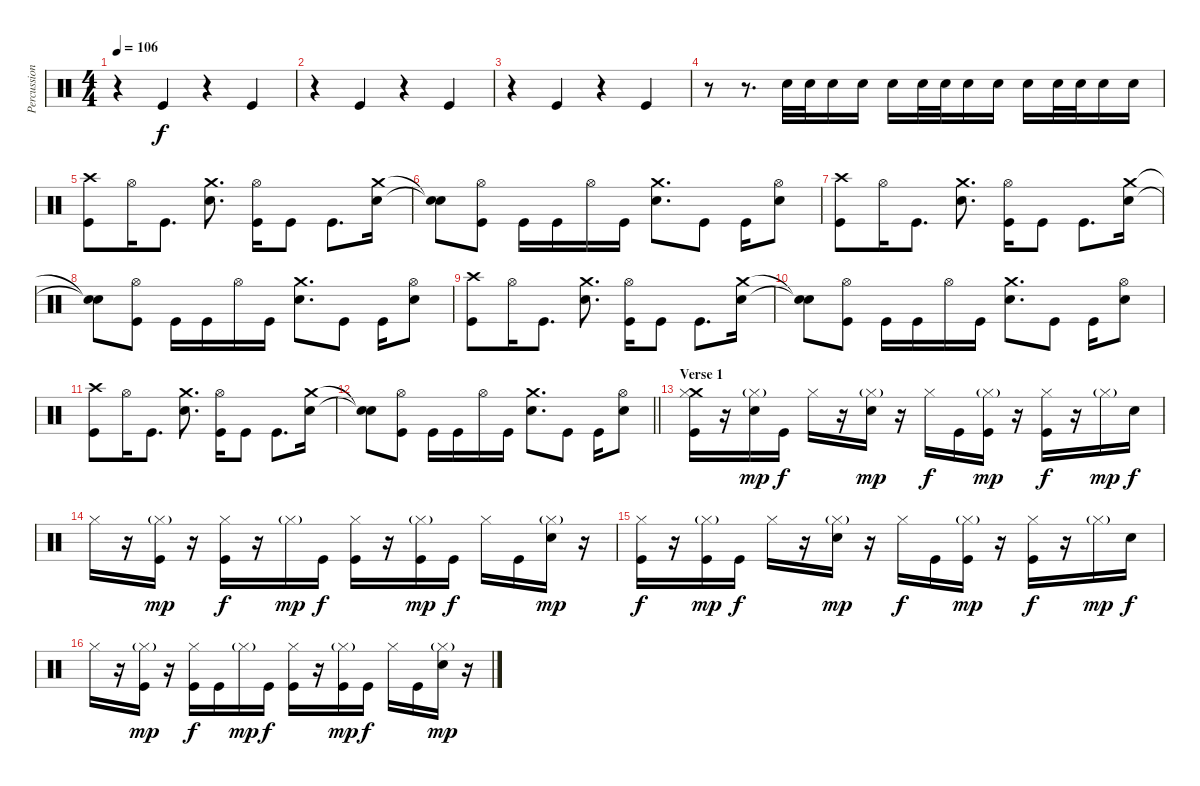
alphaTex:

\track ("Percussion" "Percussion") {instrument percussion}
\staff {score}
\articulation defaults
\ts (4 4)
\tempo 106
\clef neutral
\ks c
r.4{dy f} "Kick (hit)".4 r.4 "Kick (hit)".4 |
r.4 "Kick (hit)".4 r.4 "Kick (hit)".4 |
r.4 "Kick (hit)".4 r.4 "Kick (hit)".4 |
r.8 r.8{d} "Snare (hit) 2".32 "Snare (hit) 2".32 "Snare (hit) 2".16 "Snare (hit) 2".16 "Snare (hit) 2".16 "Snare (hit) 2".32 "Snare (hit) 2".32 "Snare (hit) 2".16 "Snare (hit) 2".16 "Snare (hit) 2".16 "Snare (hit) 2".32 "Snare (hit) 2".32 "Snare (hit) 2".16 "Snare (hit) 2".16 |
("Crash high (hit)" "Kick (hit)").8 "Hi-Hat (open)".16 "Kick (hit)".8{d} ("Crash medium (hit)" "Snare (hit) 2").8{d} ("Hi-Hat (open)" "Kick (hit)").16 "Kick (hit)".8 "Kick (hit)".8{d} ("Crash medium (hit)" "Snare (hit) 2").16 |
("Snare (hit)"{t} "Snare (hit)"{t}).8 ("Hi-Hat (open)" "Kick (hit)").8 "Kick (hit)".16 "Kick (hit)".16 "Hi-Hat (open)".16 "Kick (hit)".16 ("Crash medium (hit)" "Snare (hit) 2").8{d} "Kick (hit)".8 "Kick (hit)".16 ("Hi-Hat (open)" "Snare (hit) 2").8 |
("Crash high (hit)" "Kick (hit)").8 "Hi-Hat (open)".16 "Kick (hit)".8{d} ("Crash medium (hit)" "Snare (hit) 2").8{d} ("Hi-Hat (open)" "Kick (hit)").16 "Kick (hit)".8 "Kick (hit)".8{d} ("Crash medium (hit)" "Snare (hit) 2").16 |
("Snare (hit)"{t} "Snare (hit)"{t}).8 ("Hi-Hat (open)" "Kick (hit)").8 "Kick (hit)".16 "Kick (hit)".16 "Hi-Hat (open)".16 "Kick (hit)".16 ("Crash medium (hit)" "Snare (hit) 2").8{d} "Kick (hit)".8 "Kick (hit)".16 ("Hi-Hat (open)" "Snare (hit) 2").8 |
("Crash high (hit)" "Kick (hit)").8 "Hi-Hat (open)".16 "Kick (hit)".8{d} ("Crash medium (hit)" "Snare (hit) 2").8{d} ("Hi-Hat (open)" "Kick (hit)").16 "Kick (hit)".8 "Kick (hit)".8{d} ("Crash medium (hit)" "Snare (hit) 2").16 |
("Snare (hit)"{t} "Snare (hit)"{t}).8 ("Hi-Hat (open)" "Kick (hit)").8 "Kick (hit)".16 "Kick (hit)".16 "Hi-Hat (open)".16 "Kick (hit)".16 ("Crash medium (hit)" "Snare (hit) 2").8{d} "Kick (hit)".8 "Kick (hit)".16 ("Hi-Hat (open)" "Snare (hit) 2").8 |
("Crash high (hit)" "Kick (hit)").8 "Hi-Hat (open)".16 "Kick (hit)".8{d} ("Crash medium (hit)" "Snare (hit) 2").8{d} ("Hi-Hat (open)" "Kick (hit)").16 "Kick (hit)".8 "Kick (hit)".8{d} ("Crash medium (hit)" "Snare (hit) 2").16 |
\barLineRight lightlight
("Snare (hit)"{t} "Snare (hit)"{t}).8 ("Hi-Hat (open)" "Kick (hit)").8 "Kick (hit)".16 "Kick (hit)".16 "Hi-Hat (open)".16 "Kick (hit)".16 ("Crash medium (hit)" "Snare (hit) 2").8{d} "Kick (hit)".8 "Kick (hit)".16 ("Hi-Hat (open)" "Snare (hit) 2").8 |
\section ("" "Verse 1")
("Crash medium (hit)" "Hi-Hat (closed)" "Kick (hit)").16 r.16 ("Hi-Hat (closed)"{g} "Snare (hit) 2").16{dy mp} "Kick (hit)".16{dy f} "Hi-Hat (closed)".16 r.16 ("Hi-Hat (closed)"{g} "Snare (hit) 2").16{dy mp} r.16 "Hi-Hat (closed)".16{dy f} "Kick (hit)".16 ("Hi-Hat (closed)"{g} "Kick (hit)").16{dy mp} r.16 ("Hi-Hat (closed)" "Kick (hit)").16{dy f} r.16 "Hi-Hat (closed)"{g}.16{dy mp} "Snare (hit) 2".16{dy f} |
"Hi-Hat (closed)".16 r.16 ("Hi-Hat (closed)"{g} "Kick (hit)").16{dy mp} r.16 ("Hi-Hat (closed)" "Kick (hit)").16{dy f} r.16 "Hi-Hat (closed)"{g}.16{dy mp} "Kick (hit)".16{dy f} ("Hi-Hat (closed)" "Kick (hit)").16 r.16 ("Hi-Hat (closed)"{g} "Kick (hit)").16{dy mp} "Kick (hit)".16{dy f} "Hi-Hat (closed)".16 "Kick (hit)".16 ("Hi-Hat (closed)"{g} "Snare (hit) 2").16{dy mp} r.16 |
("Hi-Hat (closed)" "Kick (hit)").16{dy f} r.16 ("Hi-Hat (closed)"{g} "Kick (hit)").16{dy mp} "Kick (hit)".16{dy f} "Hi-Hat (closed)".16 r.16 ("Hi-Hat (closed)"{g} "Snare (hit) 2").16{dy mp} r.16 "Hi-Hat (closed)".16{dy f} "Kick (hit)".16 ("Hi-Hat (closed)"{g} "Kick (hit)").16{dy mp} r.16 ("Hi-Hat (closed)" "Kick (hit)").16{dy f} r.16 "Hi-Hat (closed)"{g}.16{dy mp} "Snare (hit) 2".16{dy f} |
"Hi-Hat (closed)".16 r.16 ("Hi-Hat (closed)"{g} "Kick (hit)").16{dy mp} r.16 ("Hi-Hat (closed)" "Kick (hit)").16{dy f} "Kick (hit)".16 "Hi-Hat (closed)"{g}.16{dy mp} "Kick (hit)".16{dy f} ("Hi-Hat (closed)" "Kick (hit)").16 r.16 ("Hi-Hat (closed)"{g} "Kick (hit)").16{dy mp} "Kick (hit)".16{dy f} "Hi-Hat (closed)".16 "Kick (hit)".16 ("Hi-Hat (closed)"{g} "Snare (hit) 2").16{dy mp} r.16
